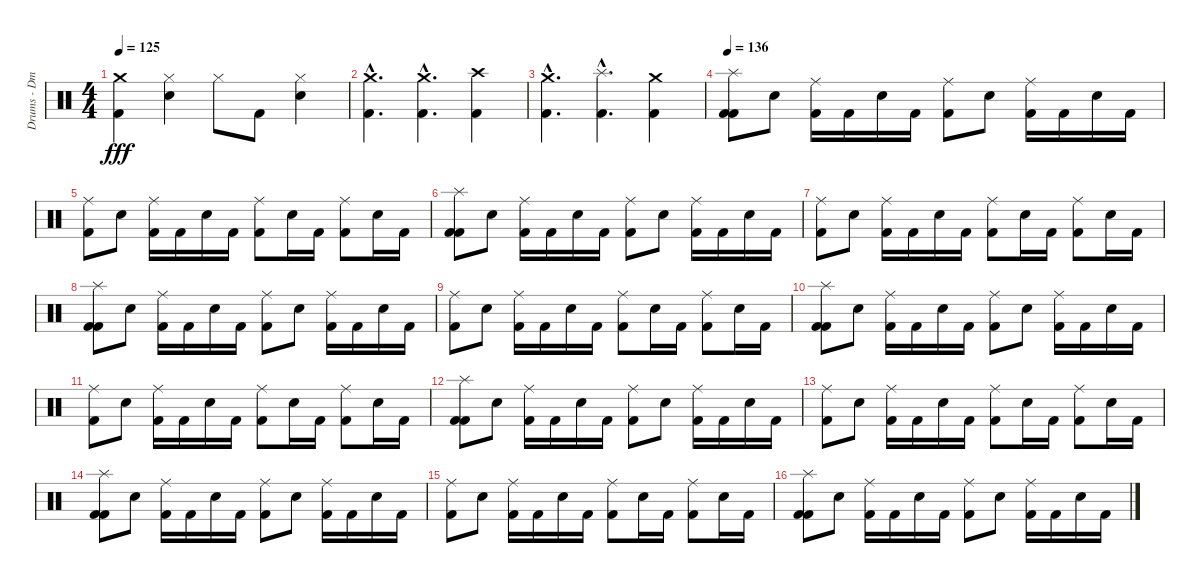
\track ("Drums - Dmitriy Krivenkov" "Drums - Dm") {instrument percussion}
\staff {score}
\articulation defaults
\ts (4 4)
\tempo 125
\clef neutral
\ks c
("Kick (hit) 2" "Crash medium (hit)").4{dy fff} ("Electric Snare (hit)" "Hi-Hat (closed)").4 "Hi-Hat (closed)".8 "Kick (hit) 2".8 ("Electric Snare (hit)" "Hi-Hat (closed)").4 |
("Kick (hit) 2"{hac} "Crash medium (hit)"{hac}).4{d} ("Kick (hit) 2"{hac} "Crash medium (hit)"{hac}).4{d} ("Kick (hit) 2" "Crash high (hit)").4 |
("Kick (hit) 2"{hac} "Crash medium (hit)"{hac}).4{d} ("Kick (hit) 2"{hac} "Splash (hit)"{hac}).4{d} ("Kick (hit) 2" "Crash medium (hit)").4 |
\tempo 136
("Splash (hit)" "Kick (hit) 2" "Kick (hit) 2").8 "Electric Snare (hit)".8 ("Kick (hit) 2" "Ride (middle)").16 "Kick (hit) 2".16 "Electric Snare (hit)".16 "Kick (hit) 2".16 ("Kick (hit) 2" "Ride (middle)").8 "Electric Snare (hit)".8 ("Ride (middle)" "Kick (hit) 2").16 "Kick (hit) 2".16 "Electric Snare (hit)".16 "Kick (hit) 2".16 |
("Ride (middle)" "Kick (hit) 2").8 "Electric Snare (hit)".8 ("Ride (middle)" "Kick (hit) 2").16 "Kick (hit) 2".16 "Electric Snare (hit)".16 "Kick (hit) 2".16 ("Kick (hit) 2" "Ride (middle)").8 "Electric Snare (hit)".16 "Kick (hit) 2".16 ("Ride (middle)" "Kick (hit) 2").8 "Electric Snare (hit)".16 "Kick (hit) 2".16 |
("Kick (hit) 2" "Kick (hit) 2" "Splash (hit)").8 "Electric Snare (hit)".8 ("Ride (middle)" "Kick (hit) 2").16 "Kick (hit) 2".16 "Electric Snare (hit)".16 "Kick (hit) 2".16 ("Ride (middle)" "Kick (hit) 2").8 "Electric Snare (hit)".8 ("Ride (middle)" "Kick (hit) 2").16 "Kick (hit) 2".16 "Electric Snare (hit)".16 "Kick (hit) 2".16 |
("Ride (middle)" "Kick (hit) 2").8 "Electric Snare (hit)".8 ("Ride (middle)" "Kick (hit) 2").16 "Kick (hit) 2".16 "Electric Snare (hit)".16 "Kick (hit) 2".16 ("Ride (middle)" "Kick (hit) 2").8 "Electric Snare (hit)".16 "Kick (hit) 2".16 ("Ride (middle)" "Kick (hit) 2").8 "Electric Snare (hit)".16 "Kick (hit) 2".16 |
("Splash (hit)" "Kick (hit) 2" "Kick (hit) 2").8 "Electric Snare (hit)".8 ("Kick (hit) 2" "Ride (middle)").16 "Kick (hit) 2".16 "Electric Snare (hit)".16 "Kick (hit) 2".16 ("Kick (hit) 2" "Ride (middle)").8 "Electric Snare (hit)".8 ("Ride (middle)" "Kick (hit) 2").16 "Kick (hit) 2".16 "Electric Snare (hit)".16 "Kick (hit) 2".16 |
("Ride (middle)" "Kick (hit) 2").8 "Electric Snare (hit)".8 ("Ride (middle)" "Kick (hit) 2").16 "Kick (hit) 2".16 "Electric Snare (hit)".16 "Kick (hit) 2".16 ("Kick (hit) 2" "Ride (middle)").8 "Electric Snare (hit)".16 "Kick (hit) 2".16 ("Ride (middle)" "Kick (hit) 2").8 "Electric Snare (hit)".16 "Kick (hit) 2".16 |
("Kick (hit) 2" "Kick (hit) 2" "Splash (hit)").8 "Electric Snare (hit)".8 ("Ride (middle)" "Kick (hit) 2").16 "Kick (hit) 2".16 "Electric Snare (hit)".16 "Kick (hit) 2".16 ("Ride (middle)" "Kick (hit) 2").8 "Electric Snare (hit)".8 ("Ride (middle)" "Kick (hit) 2").16 "Kick (hit) 2".16 "Electric Snare (hit)".16 "Kick (hit) 2".16 |
("Ride (middle)" "Kick (hit) 2").8 "Electric Snare (hit)".8 ("Ride (middle)" "Kick (hit) 2").16 "Kick (hit) 2".16 "Electric Snare (hit)".16 "Kick (hit) 2".16 ("Ride (middle)" "Kick (hit) 2").8 "Electric Snare (hit)".16 "Kick (hit) 2".16 ("Ride (middle)" "Kick (hit) 2").8 "Electric Snare (hit)".16 "Kick (hit) 2".16 |
("Splash (hit)" "Kick (hit) 2" "Kick (hit) 2").8 "Electric Snare (hit)".8 ("Kick (hit) 2" "Ride (middle)").16 "Kick (hit) 2".16 "Electric Snare (hit)".16 "Kick (hit) 2".16 ("Kick (hit) 2" "Ride (middle)").8 "Electric Snare (hit)".8 ("Ride (middle)" "Kick (hit) 2").16 "Kick (hit) 2".16 "Electric Snare (hit)".16 "Kick (hit) 2".16 |
("Ride (middle)" "Kick (hit) 2").8 "Electric Snare (hit)".8 ("Ride (middle)" "Kick (hit) 2").16 "Kick (hit) 2".16 "Electric Snare (hit)".16 "Kick (hit) 2".16 ("Kick (hit) 2" "Ride (middle)").8 "Electric Snare (hit)".16 "Kick (hit) 2".16 ("Ride (middle)" "Kick (hit) 2").8 "Electric Snare (hit)".16 "Kick (hit) 2".16 |
("Kick (hit) 2" "Kick (hit) 2" "Splash (hit)").8 "Electric Snare (hit)".8 ("Ride (middle)" "Kick (hit) 2").16 "Kick (hit) 2".16 "Electric Snare (hit)".16 "Kick (hit) 2".16 ("Ride (middle)" "Kick (hit) 2").8 "Electric Snare (hit)".8 ("Ride (middle)" "Kick (hit) 2").16 "Kick (hit) 2".16 "Electric Snare (hit)".16 "Kick (hit) 2".16 |
("Ride (middle)" "Kick (hit) 2").8 "Electric Snare (hit)".8 ("Ride (middle)" "Kick (hit) 2").16 "Kick (hit) 2".16 "Electric Snare (hit)".16 "Kick (hit) 2".16 ("Ride (middle)" "Kick (hit) 2").8 "Electric Snare (hit)".16 "Kick (hit) 2".16 ("Ride (middle)" "Kick (hit) 2").8 "Electric Snare (hit)".16 "Kick (hit) 2".16 |
("Kick (hit) 2" "Kick (hit) 2" "Splash (hit)").8 "Electric Snare (hit)".8 ("Ride (middle)" "Kick (hit) 2").16 "Kick (hit) 2".16 "Electric Snare (hit)".16 "Kick (hit) 2".16 ("Ride (middle)" "Kick (hit) 2").8 "Electric Snare (hit)".8 ("Ride (middle)" "Kick (hit) 2").16 "Kick (hit) 2".16 "Electric Snare (hit)".16 "Kick (hit) 2".16
